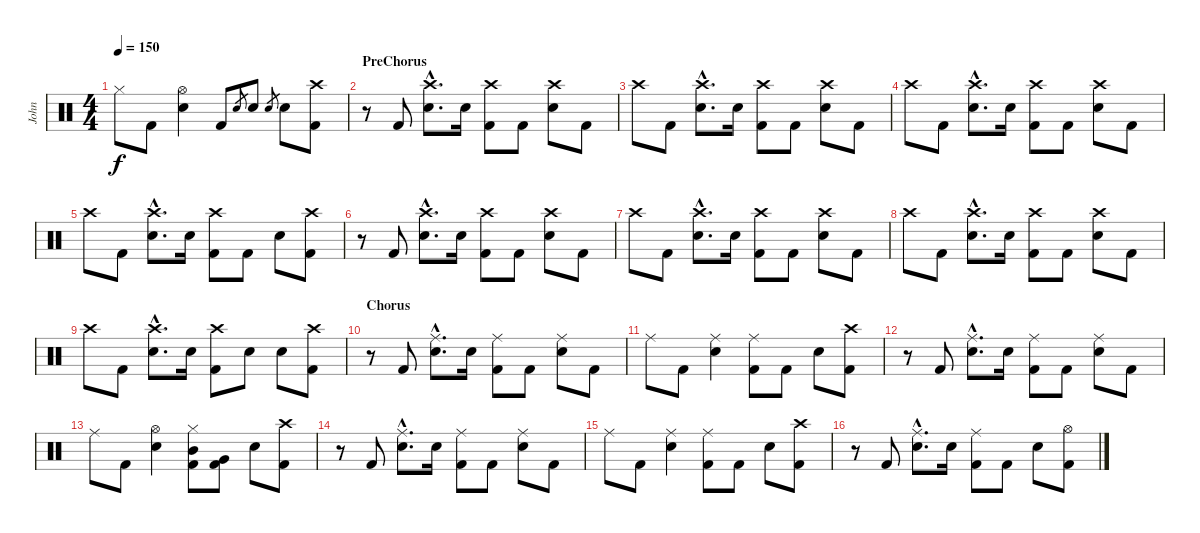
\track ("John" "John") {instrument percussion}
\staff {score}
\articulation defaults
\ts (4 4)
\tempo 150
\clef neutral
\ks c "Hi-Hat (closed)".8{dy f} "Kick (hit) 2".8
("Hi-Hat (open)" "Electric Snare (hit)").4 "Kick (hit) 2".8 "Electric Snare (hit)".8{gr} "Electric Snare (hit)".8 "Electric Snare (hit)".8{gr} "Electric Snare (hit)".8 ("Crash high (hit)" "Kick (hit) 2").8 |
\section ("" "PreChorus")
r.8 "Kick (hit) 2".8 ("Crash high (hit)"{hac} "Electric Snare (hit)"{hac}).8{d} "Electric Snare (hit)".16 ("Crash high (hit)" "Kick (hit) 2").8 "Kick (hit) 2".8 ("Crash high (hit)" "Electric Snare (hit)").8 "Kick (hit) 2".8 |
"Crash high (hit)".8 "Kick (hit) 2".8 ("Crash high (hit)"{hac} "Electric Snare (hit)"{hac}).8{d} "Electric Snare (hit)".16 ("Crash high (hit)" "Kick (hit) 2").8 "Kick (hit) 2".8 ("Crash high (hit)" "Electric Snare (hit)").8 "Kick (hit) 2".8 |
"Crash high (hit)".8 "Kick (hit) 2".8 ("Crash high (hit)"{hac} "Electric Snare (hit)"{hac}).8{d} "Electric Snare (hit)".16 ("Crash high (hit)" "Kick (hit) 2").8 "Kick (hit) 2".8 ("Crash high (hit)" "Electric Snare (hit)").8 "Kick (hit) 2".8 |
"Crash high (hit)".8 "Kick (hit) 2".8 ("Crash high (hit)"{hac} "Electric Snare (hit)"{hac}).8{d} "Electric Snare (hit)".16 ("Crash high (hit)" "Kick (hit) 2").8 "Kick (hit) 2".8 "Electric Snare (hit)".8 ("Crash high (hit)" "Kick (hit) 2").8 |
r.8 "Kick (hit) 2".8 ("Crash high (hit)"{hac} "Electric Snare (hit)"{hac}).8{d} "Electric Snare (hit)".16 ("Crash high (hit)" "Kick (hit) 2").8 "Kick (hit) 2".8 ("Crash high (hit)" "Electric Snare (hit)").8 "Kick (hit) 2".8 |
"Crash high (hit)".8 "Kick (hit) 2".8 ("Crash high (hit)"{hac} "Electric Snare (hit)"{hac}).8{d} "Electric Snare (hit)".16 ("Crash high (hit)" "Kick (hit) 2").8 "Kick (hit) 2".8 ("Crash high (hit)" "Electric Snare (hit)").8 "Kick (hit) 2".8 |
"Crash high (hit)".8 "Kick (hit) 2".8 ("Crash high (hit)"{hac} "Electric Snare (hit)"{hac}).8{d} "Electric Snare (hit)".16 ("Crash high (hit)" "Kick (hit) 2").8 "Kick (hit) 2".8 ("Crash high (hit)" "Electric Snare (hit)").8 "Kick (hit) 2".8 |
"Crash high (hit)".8 "Kick (hit) 2".8 ("Crash high (hit)"{hac} "Electric Snare (hit)"{hac}).8{d} "Electric Snare (hit)".16 ("Crash high (hit)" "Kick (hit) 2").8 "Electric Snare (hit)".8 "Electric Snare (hit)".8 ("Crash high (hit)" "Kick (hit) 2").8 |
\section ("" "Chorus")
r.8 "Kick (hit) 2".8 ("Ride (middle)"{hac} "Electric Snare (hit)"{hac}).8{d} "Electric Snare (hit)".16 ("Ride (middle)" "Kick (hit) 2").8 "Kick (hit) 2".8 ("Ride (middle)" "Electric Snare (hit)").8 "Kick (hit) 2".8 |
"Ride (middle)".8 "Kick (hit) 2".8 ("Ride (middle)" "Electric Snare (hit)").4 ("Ride (middle)" "Kick (hit) 2").8 "Kick (hit) 2".8 "Electric Snare (hit)".8 ("Crash high (hit)" "Kick (hit) 2").8 |
r.8 "Kick (hit) 2".8 ("Ride (middle)"{hac} "Electric Snare (hit)"{hac}).8{d} "Electric Snare (hit)".16 ("Ride (middle)" "Kick (hit) 2").8 "Kick (hit) 2".8 ("Ride (middle)" "Electric Snare (hit)").8 "Kick (hit) 2".8 |
"Ride (middle)".8 "Kick (hit) 2".8 ("Hi-Hat (open)" "Electric Snare (hit)").4 ("Hi-Hat (closed)" "Mid Tom (hit)" "Kick (hit) 2").8 ("Very Low Tom (hit)" "Kick (hit) 2").8 "Electric Snare (hit)".8 ("Crash high (hit)" "Kick (hit) 2").8 |
r.8 "Kick (hit) 2".8 ("Ride (middle)"{hac} "Electric Snare (hit)"{hac}).8{d} "Electric Snare (hit)".16 ("Ride (middle)" "Kick (hit) 2").8 "Kick (hit) 2".8 ("Ride (middle)" "Electric Snare (hit)").8 "Kick (hit) 2".8 |
"Ride (middle)".8 "Kick (hit) 2".8 ("Ride (middle)" "Electric Snare (hit)").4 ("Ride (middle)" "Kick (hit) 2").8 "Kick (hit) 2".8 "Electric Snare (hit)".8 ("Crash high (hit)" "Kick (hit) 2").8 |
r.8 "Kick (hit) 2".8 ("Ride (middle)"{hac} "Electric Snare (hit)"{hac}).8{d} "Electric Snare (hit)".16 ("Ride (middle)" "Kick (hit) 2").8 "Kick (hit) 2".8 "Electric Snare (hit)".8 ("Hi-Hat (open)" "Kick (hit) 2").8
